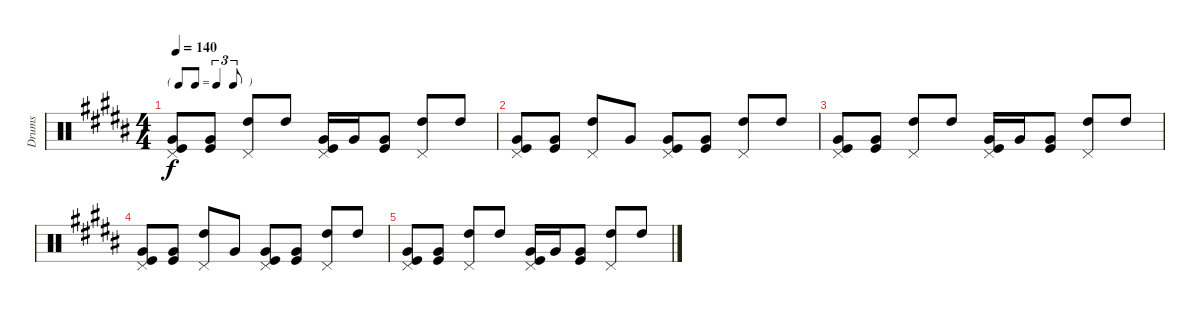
\track ("Drums" "Drums") {instrument percussion}
\staff {score}
\articulation defaults
\ts (4 4)
\tf triplet8th
\tempo 140
\clef neutral
\ks b
("Kick (hit)" "Very Low Tom (hit)" "Pedal Hi-Hat (hit)").8{dy f} ("Kick (hit)" "Very Low Tom (hit)").8 ("High Tom (hit)" "Pedal Hi-Hat (hit)").8 "High Tom (hit)".8 ("Very Low Tom (hit)" "Kick (hit)" "Pedal Hi-Hat (hit)").16 "Very Low Tom (hit)".16 ("Very Low Tom (hit)" "Kick (hit)").8 ("High Tom (hit)" "Pedal Hi-Hat (hit)").8 "High Tom (hit)".8 |
("Kick (hit)" "Very Low Tom (hit)" "Pedal Hi-Hat (hit)").8{volume 0} ("Kick (hit)" "Very Low Tom (hit)").8 ("High Tom (hit)" "Pedal Hi-Hat (hit)").8 "Very Low Tom (hit)".8 ("Very Low Tom (hit)" "Kick (hit)" "Pedal Hi-Hat (hit)").8 ("Very Low Tom (hit)" "Kick (hit)").8 ("High Tom (hit)" "Pedal Hi-Hat (hit)").8 "High Tom (hit)".8 |
("Kick (hit)" "Very Low Tom (hit)" "Pedal Hi-Hat (hit)").8 ("Kick (hit)" "Very Low Tom (hit)").8 ("High Tom (hit)" "Pedal Hi-Hat (hit)").8 "High Tom (hit)".8 ("Very Low Tom (hit)" "Kick (hit)" "Pedal Hi-Hat (hit)").16 "Very Low Tom (hit)".16 ("Very Low Tom (hit)" "Kick (hit)").8 ("High Tom (hit)" "Pedal Hi-Hat (hit)").8 "High Tom (hit)".8 |
("Kick (hit)" "Very Low Tom (hit)" "Pedal Hi-Hat (hit)").8 ("Kick (hit)" "Very Low Tom (hit)").8 ("High Tom (hit)" "Pedal Hi-Hat (hit)").8 "Very Low Tom (hit)".8 ("Very Low Tom (hit)" "Kick (hit)" "Pedal Hi-Hat (hit)").8 ("Very Low Tom (hit)" "Kick (hit)").8 ("High Tom (hit)" "Pedal Hi-Hat (hit)").8 "High Tom (hit)".8 |
("Kick (hit)" "Very Low Tom (hit)" "Pedal Hi-Hat (hit)").8 ("Kick (hit)" "Very Low Tom (hit)").8 ("High Tom (hit)" "Pedal Hi-Hat (hit)").8 "High Tom (hit)".8 ("Very Low Tom (hit)" "Kick (hit)" "Pedal Hi-Hat (hit)").16 "Very Low Tom (hit)".16 ("Very Low Tom (hit)" "Kick (hit)").8 ("High Tom (hit)" "Pedal Hi-Hat (hit)").8 "High Tom (hit)".8
